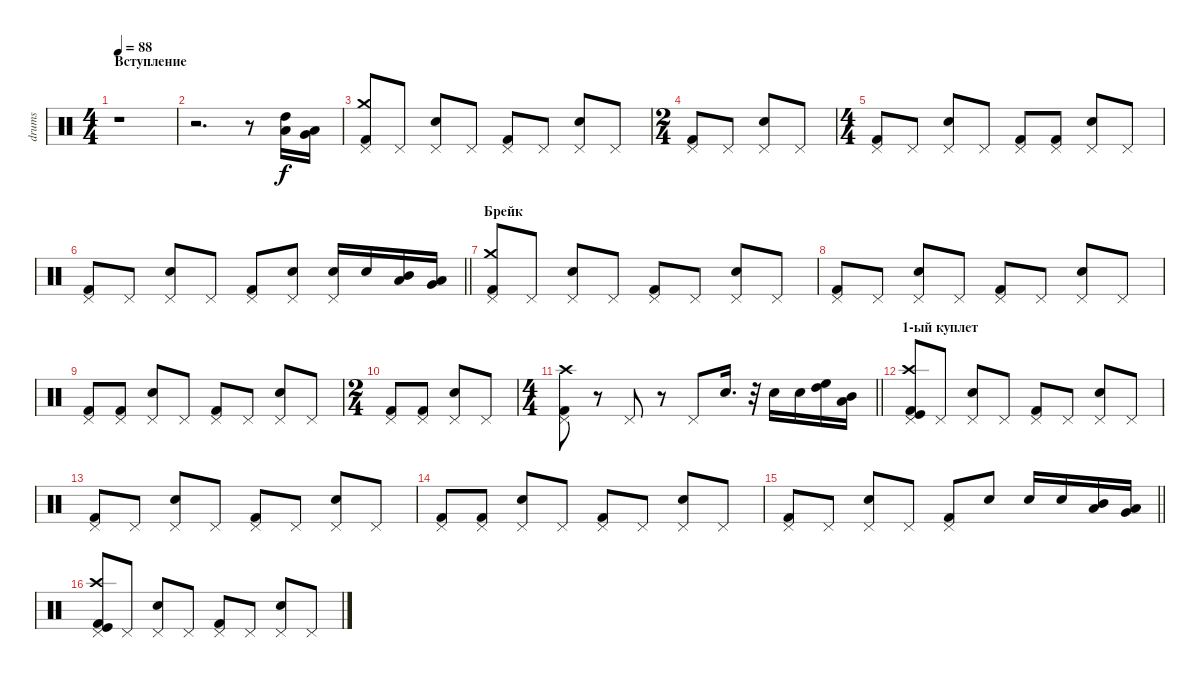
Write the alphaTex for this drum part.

\track ("drums" "drums") {instrument percussion}
\staff {score}
\articulation defaults
\ts (4 4)
\section ("" "Вступление")
\tempo 88
\clef neutral
\ks c
r.1{dy f} |
r.2{d} r.8 ("High Tom (hit)" "Low Tom (hit)").16 ("Very Low Tom (hit)" "Low Floor Tom (hit)").16 |
("Kick (hit) 2" "Crash medium (hit)" "Pedal Hi-Hat (hit)").8 "Pedal Hi-Hat (hit)".8 ("Pedal Hi-Hat (hit)" "Snare (hit) 2").8 "Pedal Hi-Hat (hit)".8 ("Kick (hit) 2" "Pedal Hi-Hat (hit)").8 "Pedal Hi-Hat (hit)".8 ("Pedal Hi-Hat (hit)" "Snare (hit) 2").8 "Pedal Hi-Hat (hit)".8 |
\ts (2 4)
("Pedal Hi-Hat (hit)" "Kick (hit) 2").8 "Pedal Hi-Hat (hit)".8 ("Snare (hit) 2" "Pedal Hi-Hat (hit)").8 "Pedal Hi-Hat (hit)".8 |
\ts (4 4)
("Pedal Hi-Hat (hit)" "Kick (hit) 2").8 "Pedal Hi-Hat (hit)".8 ("Snare (hit) 2" "Pedal Hi-Hat (hit)").8 "Pedal Hi-Hat (hit)".8 ("Kick (hit) 2" "Pedal Hi-Hat (hit)").8 ("Kick (hit) 2" "Pedal Hi-Hat (hit)").8 ("Pedal Hi-Hat (hit)" "Snare (hit) 2").8 "Pedal Hi-Hat (hit)".8 |
\barLineRight lightlight
("Kick (hit) 2" "Pedal Hi-Hat (hit)").8 "Pedal Hi-Hat (hit)".8 ("Snare (hit) 2" "Pedal Hi-Hat (hit)").8 "Pedal Hi-Hat (hit)".8 ("Pedal Hi-Hat (hit)" "Kick (hit) 2").8 ("Snare (hit) 2" "Pedal Hi-Hat (hit)").8 ("Snare (hit) 2" "Pedal Hi-Hat (hit)").16 "Snare (hit) 2".16 ("Mid Tom (hit)" "Low Tom (hit)").16 ("Low Floor Tom (hit)" "Very Low Tom (hit)").16 |
\section ("" "Брейк")
("Kick (hit) 2" "Crash medium (hit)" "Pedal Hi-Hat (hit)").8 "Pedal Hi-Hat (hit)".8 ("Snare (hit) 2" "Pedal Hi-Hat (hit)").8 "Pedal Hi-Hat (hit)".8 ("Pedal Hi-Hat (hit)" "Kick (hit) 2").8 "Pedal Hi-Hat (hit)".8 ("Snare (hit) 2" "Pedal Hi-Hat (hit)").8 "Pedal Hi-Hat (hit)".8 |
("Kick (hit) 2" "Pedal Hi-Hat (hit)").8 "Pedal Hi-Hat (hit)".8 ("Pedal Hi-Hat (hit)" "Snare (hit) 2").8 "Pedal Hi-Hat (hit)".8 ("Kick (hit) 2" "Pedal Hi-Hat (hit)").8 "Pedal Hi-Hat (hit)".8 ("Snare (hit) 2" "Pedal Hi-Hat (hit)").8 "Pedal Hi-Hat (hit)".8 |
("Kick (hit) 2" "Pedal Hi-Hat (hit)").8 ("Kick (hit) 2" "Pedal Hi-Hat (hit)").8 ("Snare (hit) 2" "Pedal Hi-Hat (hit)").8 "Pedal Hi-Hat (hit)".8 ("Kick (hit) 2" "Pedal Hi-Hat (hit)").8 "Pedal Hi-Hat (hit)".8 ("Pedal Hi-Hat (hit)" "Snare (hit) 2").8 "Pedal Hi-Hat (hit)".8 |
\ts (2 4)
("Pedal Hi-Hat (hit)" "Kick (hit) 2").8 ("Kick (hit) 2" "Pedal Hi-Hat (hit)").8 ("Pedal Hi-Hat (hit)" "Snare (hit) 2").8 "Pedal Hi-Hat (hit)".8 |
\ts (4 4)
\barLineRight lightlight
("Pedal Hi-Hat (hit)" "Kick (hit) 2" "Crash high (hit)").8 r.8 "Pedal Hi-Hat (hit)".8 r.8 "Pedal Hi-Hat (hit)".8 "Snare (hit) 2".16{d} r.32 "Snare (hit) 2".16 "Snare (hit) 2".16 ("High Tom (hit)" "High Floor Tom (hit)").16 ("Mid Tom (hit)" "Low Tom (hit)").16 |
\section ("" "1-ый куплет")
("Kick (hit)" "Crash high (hit)" "Kick (hit) 2" "Pedal Hi-Hat (hit)").8 "Pedal Hi-Hat (hit)".8 ("Snare (hit) 2" "Pedal Hi-Hat (hit)").8 "Pedal Hi-Hat (hit)".8 ("Kick (hit) 2" "Pedal Hi-Hat (hit)").8 "Pedal Hi-Hat (hit)".8 ("Pedal Hi-Hat (hit)" "Snare (hit) 2").8 "Pedal Hi-Hat (hit)".8 |
("Pedal Hi-Hat (hit)" "Kick (hit) 2").8 "Pedal Hi-Hat (hit)".8 ("Snare (hit) 2" "Pedal Hi-Hat (hit)").8 "Pedal Hi-Hat (hit)".8 ("Pedal Hi-Hat (hit)" "Kick (hit) 2").8 "Pedal Hi-Hat (hit)".8 ("Pedal Hi-Hat (hit)" "Snare (hit) 2").8 "Pedal Hi-Hat (hit)".8 |
("Pedal Hi-Hat (hit)" "Kick (hit) 2").8 ("Kick (hit) 2" "Pedal Hi-Hat (hit)").8 ("Pedal Hi-Hat (hit)" "Snare (hit) 2").8 "Pedal Hi-Hat (hit)".8 ("Kick (hit) 2" "Pedal Hi-Hat (hit)").8 "Pedal Hi-Hat (hit)".8 ("Pedal Hi-Hat (hit)" "Snare (hit) 2").8 "Pedal Hi-Hat (hit)".8 |
\barLineRight lightlight
("Pedal Hi-Hat (hit)" "Kick (hit) 2").8 "Pedal Hi-Hat (hit)".8 ("Pedal Hi-Hat (hit)" "Snare (hit) 2").8 "Pedal Hi-Hat (hit)".8 ("Pedal Hi-Hat (hit)" "Kick (hit) 2").8 "Snare (hit) 2".8 "Snare (hit) 2".16 "Snare (hit) 2".16 ("Mid Tom (hit)" "Low Tom (hit)").16 ("Very Low Tom (hit)" "Low Floor Tom (hit)").16 |
("Kick (hit)" "Crash high (hit)" "Kick (hit) 2" "Pedal Hi-Hat (hit)").8 "Pedal Hi-Hat (hit)".8 ("Snare (hit) 2" "Pedal Hi-Hat (hit)").8 "Pedal Hi-Hat (hit)".8 ("Kick (hit) 2" "Pedal Hi-Hat (hit)").8 "Pedal Hi-Hat (hit)".8 ("Pedal Hi-Hat (hit)" "Snare (hit) 2").8 "Pedal Hi-Hat (hit)".8
